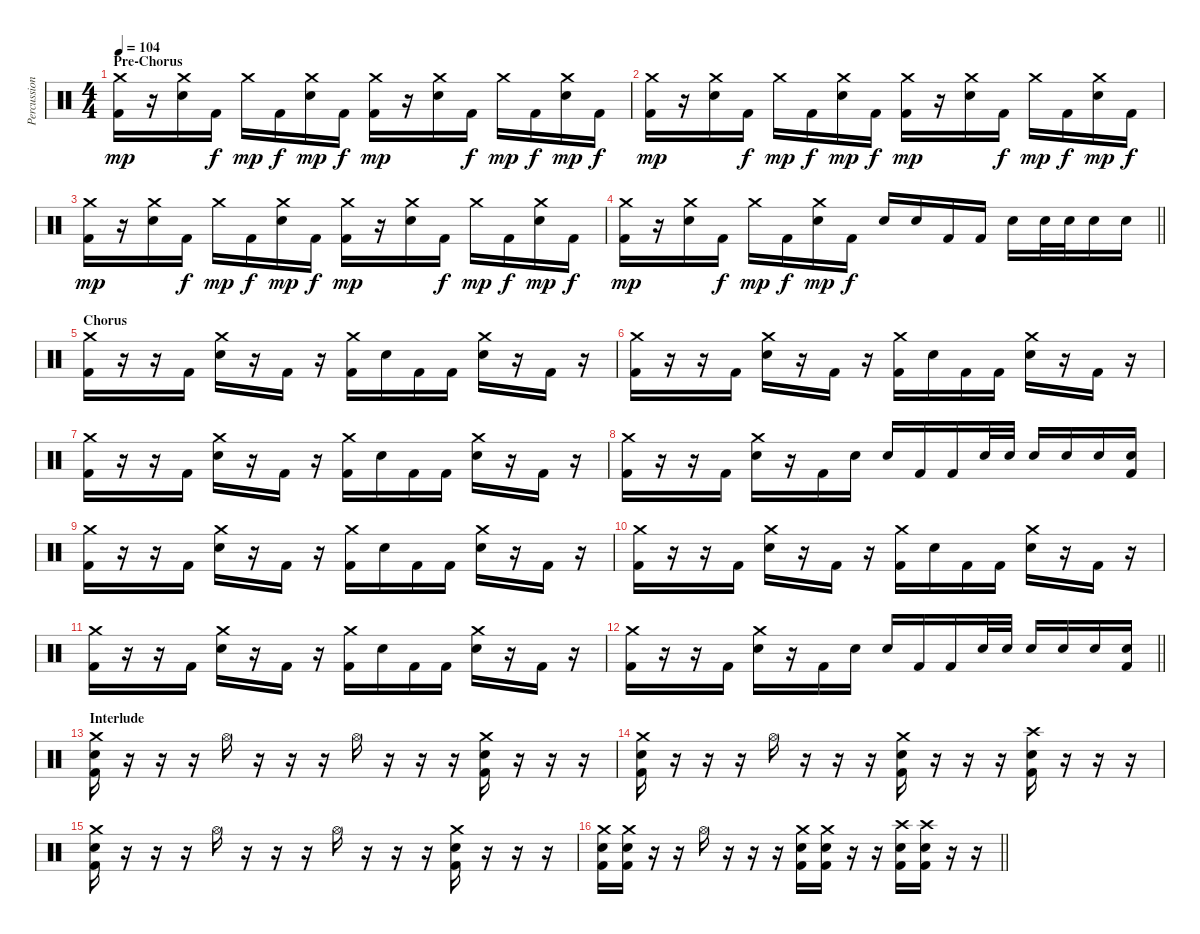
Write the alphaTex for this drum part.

\track ("Percussion" "Percussion") {instrument percussion}
\staff {score}
\articulation defaults
\ts (4 4)
\section ("" "Pre-Chorus")
\tempo 104
\clef neutral
\ks c
("Crash medium (hit)" "Kick (hit) 2").16{dy mp} r.16 ("Crash medium (hit)" "Electric Snare (hit)").16 "Kick (hit) 2".16{dy f} "Crash medium (hit)".16{dy mp} "Kick (hit) 2".16{dy f} ("Crash medium (hit)" "Electric Snare (hit)").16{dy mp} "Kick (hit) 2".16{dy f} ("Crash medium (hit)" "Kick (hit) 2").16{dy mp} r.16 ("Crash medium (hit)" "Electric Snare (hit)").16 "Kick (hit) 2".16{dy f} "Crash medium (hit)".16{dy mp} "Kick (hit) 2".16{dy f} ("Crash medium (hit)" "Electric Snare (hit)").16{dy mp} "Kick (hit) 2".16{dy f} |
("Crash medium (hit)" "Kick (hit) 2").16{dy mp} r.16 ("Crash medium (hit)" "Electric Snare (hit)").16 "Kick (hit) 2".16{dy f} "Crash medium (hit)".16{dy mp} "Kick (hit) 2".16{dy f} ("Crash medium (hit)" "Electric Snare (hit)").16{dy mp} "Kick (hit) 2".16{dy f} ("Crash medium (hit)" "Kick (hit) 2").16{dy mp} r.16 ("Crash medium (hit)" "Electric Snare (hit)").16 "Kick (hit) 2".16{dy f} "Crash medium (hit)".16{dy mp} "Kick (hit) 2".16{dy f} ("Crash medium (hit)" "Electric Snare (hit)").16{dy mp} "Kick (hit) 2".16{dy f} |
("Crash medium (hit)" "Kick (hit) 2").16{dy mp} r.16 ("Crash medium (hit)" "Electric Snare (hit)").16 "Kick (hit) 2".16{dy f} "Crash medium (hit)".16{dy mp} "Kick (hit) 2".16{dy f} ("Crash medium (hit)" "Electric Snare (hit)").16{dy mp} "Kick (hit) 2".16{dy f} ("Crash medium (hit)" "Kick (hit) 2").16{dy mp} r.16 ("Crash medium (hit)" "Electric Snare (hit)").16 "Kick (hit) 2".16{dy f} "Crash medium (hit)".16{dy mp} "Kick (hit) 2".16{dy f} ("Crash medium (hit)" "Electric Snare (hit)").16{dy mp} "Kick (hit) 2".16{dy f} |
\barLineRight lightlight
("Crash medium (hit)" "Kick (hit) 2").16{dy mp} r.16 ("Crash medium (hit)" "Electric Snare (hit)").16 "Kick (hit) 2".16{dy f} "Crash medium (hit)".16{dy mp} "Kick (hit) 2".16{dy f} ("Crash medium (hit)" "Electric Snare (hit)").16{dy mp} "Kick (hit) 2".16{dy f} "Electric Snare (hit)".16 "Electric Snare (hit)".16 "Kick (hit) 2".16 "Kick (hit) 2".16 "Electric Snare (hit)".16 "Electric Snare (hit)".32 "Electric Snare (hit)".32 "Electric Snare (hit)".16 "Electric Snare (hit)".16 |
\section ("" "Chorus")
("Crash medium (hit)" "Kick (hit) 2").16 r.16 r.16 "Kick (hit) 2".16 ("Crash medium (hit)" "Electric Snare (hit)").16 r.16 "Kick (hit) 2".16 r.16 ("Crash medium (hit)" "Kick (hit) 2").16 "Electric Snare (hit)".16 "Kick (hit) 2".16 "Kick (hit) 2".16 ("Crash medium (hit)" "Electric Snare (hit)").16 r.16 "Kick (hit) 2".16 r.16 |
("Crash medium (hit)" "Kick (hit) 2").16 r.16 r.16 "Kick (hit) 2".16 ("Crash medium (hit)" "Electric Snare (hit)").16 r.16 "Kick (hit) 2".16 r.16 ("Crash medium (hit)" "Kick (hit) 2").16 "Electric Snare (hit)".16 "Kick (hit) 2".16 "Kick (hit) 2".16 ("Crash medium (hit)" "Electric Snare (hit)").16 r.16 "Kick (hit) 2".16 r.16 |
("Crash medium (hit)" "Kick (hit) 2").16 r.16 r.16 "Kick (hit) 2".16 ("Crash medium (hit)" "Electric Snare (hit)").16 r.16 "Kick (hit) 2".16 r.16 ("Crash medium (hit)" "Kick (hit) 2").16 "Electric Snare (hit)".16 "Kick (hit) 2".16 "Kick (hit) 2".16 ("Crash medium (hit)" "Electric Snare (hit)").16 r.16 "Kick (hit) 2".16 r.16 |
("Crash medium (hit)" "Kick (hit) 2").16 r.16 r.16 "Kick (hit) 2".16 ("Crash medium (hit)" "Electric Snare (hit)").16 r.16 "Kick (hit) 2".16 "Electric Snare (hit)".16 "Electric Snare (hit)".16 "Kick (hit) 2".16 "Kick (hit) 2".16 "Electric Snare (hit)".32 "Electric Snare (hit)".32 "Electric Snare (hit)".16 "Electric Snare (hit)".16 "Electric Snare (hit)".16 ("Electric Snare (hit)" "Kick (hit) 2").16 |
("Crash medium (hit)" "Kick (hit) 2").16 r.16 r.16 "Kick (hit) 2".16 ("Crash medium (hit)" "Electric Snare (hit)").16 r.16 "Kick (hit) 2".16 r.16 ("Crash medium (hit)" "Kick (hit) 2").16 "Electric Snare (hit)".16 "Kick (hit) 2".16 "Kick (hit) 2".16 ("Crash medium (hit)" "Electric Snare (hit)").16 r.16 "Kick (hit) 2".16 r.16 |
("Crash medium (hit)" "Kick (hit) 2").16 r.16 r.16 "Kick (hit) 2".16 ("Crash medium (hit)" "Electric Snare (hit)").16 r.16 "Kick (hit) 2".16 r.16 ("Crash medium (hit)" "Kick (hit) 2").16 "Electric Snare (hit)".16 "Kick (hit) 2".16 "Kick (hit) 2".16 ("Crash medium (hit)" "Electric Snare (hit)").16 r.16 "Kick (hit) 2".16 r.16 |
("Crash medium (hit)" "Kick (hit) 2").16 r.16 r.16 "Kick (hit) 2".16 ("Crash medium (hit)" "Electric Snare (hit)").16 r.16 "Kick (hit) 2".16 r.16 ("Crash medium (hit)" "Kick (hit) 2").16 "Electric Snare (hit)".16 "Kick (hit) 2".16 "Kick (hit) 2".16 ("Crash medium (hit)" "Electric Snare (hit)").16 r.16 "Kick (hit) 2".16 r.16 |
\barLineRight lightlight
("Crash medium (hit)" "Kick (hit) 2").16 r.16 r.16 "Kick (hit) 2".16 ("Crash medium (hit)" "Electric Snare (hit)").16 r.16 "Kick (hit) 2".16 "Electric Snare (hit)".16 "Electric Snare (hit)".16 "Kick (hit) 2".16 "Kick (hit) 2".16 "Electric Snare (hit)".32 "Electric Snare (hit)".32 "Electric Snare (hit)".16 "Electric Snare (hit)".16 "Electric Snare (hit)".16 ("Electric Snare (hit)" "Kick (hit) 2").16 |
\section ("" "Interlude")
("Crash medium (hit)" "Electric Snare (hit)" "Kick (hit) 2").16 r.16 r.16 r.16 "Hi-Hat (open)".16 r.16 r.16 r.16 "Hi-Hat (open)".16 r.16 r.16 r.16 ("Crash medium (hit)" "Electric Snare (hit)" "Kick (hit) 2").16 r.16 r.16 r.16 |
("Crash medium (hit)" "Electric Snare (hit)" "Kick (hit) 2").16 r.16 r.16 r.16 "Hi-Hat (open)".16 r.16 r.16 r.16 ("Crash medium (hit)" "Electric Snare (hit)" "Kick (hit) 2").16 r.16 r.16 r.16 ("Crash high (hit)" "Electric Snare (hit)" "Kick (hit) 2").16 r.16 r.16 r.16 |
("Crash medium (hit)" "Electric Snare (hit)" "Kick (hit) 2").16 r.16 r.16 r.16 "Hi-Hat (open)".16 r.16 r.16 r.16 "Hi-Hat (open)".16 r.16 r.16 r.16 ("Crash medium (hit)" "Electric Snare (hit)" "Kick (hit) 2").16 r.16 r.16 r.16 |
\barLineRight lightlight
("Crash medium (hit)" "Electric Snare (hit)" "Kick (hit) 2").16 ("Crash medium (hit)" "Electric Snare (hit)" "Kick (hit) 2").16 r.16 r.16 "Hi-Hat (open)".16 r.16 r.16 r.16 ("Crash medium (hit)" "Electric Snare (hit)" "Kick (hit) 2").16 ("Crash medium (hit)" "Kick (hit) 2" "Electric Snare (hit)").16 r.16 r.16 ("Crash high (hit)" "Electric Snare (hit)" "Kick (hit) 2").16 ("Crash high (hit)" "Electric Snare (hit)" "Kick (hit) 2").16 r.16 r.16
